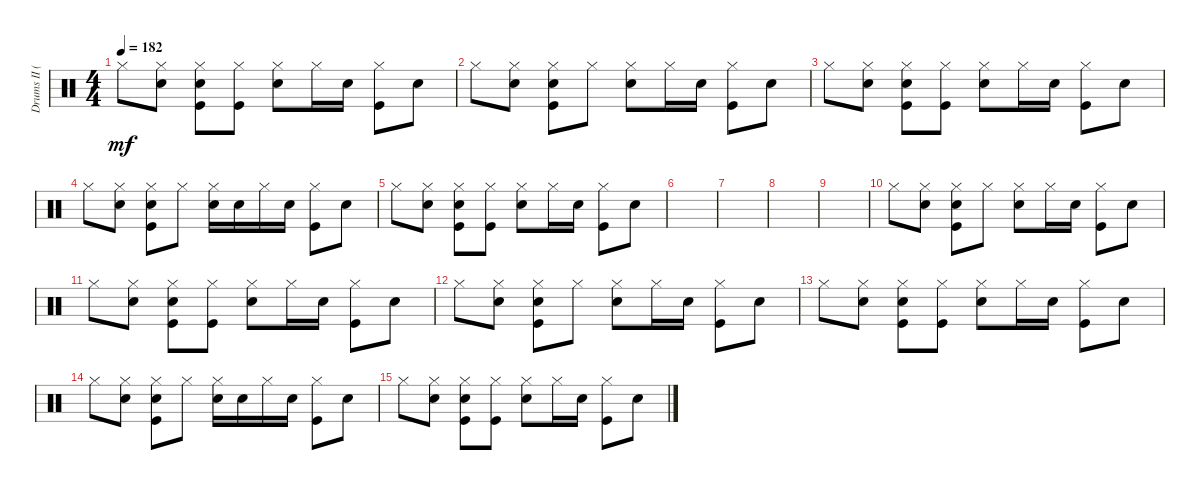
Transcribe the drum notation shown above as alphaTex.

\track ("Drums II (Tainaka Ritsu)" "Drums II (") {instrument percussion}
\staff {score}
\articulation defaults
\ts (4 4)
\tempo 182
\clef neutral
\ks c "Hi-Hat (closed)".8{dy mf}
("Hi-Hat (closed)" "Snare (hit) 2").8 ("Hi-Hat (closed)" "Snare (hit) 2" "Kick (hit)").8 ("Hi-Hat (closed)" "Kick (hit)").8 ("Hi-Hat (closed)" "Snare (hit) 2").8 "Hi-Hat (closed)".16 "Snare (hit) 2".16 ("Hi-Hat (closed)" "Kick (hit)").8 "Snare (hit) 2".8 |
"Hi-Hat (closed)".8 ("Hi-Hat (closed)" "Snare (hit) 2").8 ("Hi-Hat (closed)" "Snare (hit) 2" "Kick (hit)").8 "Hi-Hat (closed)".8 ("Hi-Hat (closed)" "Snare (hit) 2").8 "Hi-Hat (closed)".16 "Snare (hit) 2".16 ("Hi-Hat (closed)" "Kick (hit)").8 "Snare (hit) 2".8 |
"Hi-Hat (closed)".8 ("Hi-Hat (closed)" "Snare (hit) 2").8 ("Hi-Hat (closed)" "Snare (hit) 2" "Kick (hit)").8 ("Hi-Hat (closed)" "Kick (hit)").8 ("Hi-Hat (closed)" "Snare (hit) 2").8 "Hi-Hat (closed)".16 "Snare (hit) 2".16 ("Hi-Hat (closed)" "Kick (hit)").8 "Snare (hit) 2".8 |
"Hi-Hat (closed)".8 ("Hi-Hat (closed)" "Snare (hit) 2").8 ("Hi-Hat (closed)" "Snare (hit) 2" "Kick (hit)").8 "Hi-Hat (closed)".8 ("Hi-Hat (closed)" "Snare (hit) 2").16 "Snare (hit) 2".16 "Hi-Hat (closed)".16 "Snare (hit) 2".16 ("Hi-Hat (closed)" "Kick (hit)").8 "Snare (hit) 2".8 |
"Hi-Hat (closed)".8 ("Hi-Hat (closed)" "Snare (hit) 2").8 ("Hi-Hat (closed)" "Snare (hit) 2" "Kick (hit)").8 ("Hi-Hat (closed)" "Kick (hit)").8 ("Hi-Hat (closed)" "Snare (hit) 2").8 "Hi-Hat (closed)".16 "Snare (hit) 2".16 ("Hi-Hat (closed)" "Kick (hit)").8 "Snare (hit) 2".8 |
|
|
|
|
"Hi-Hat (closed)".8 ("Hi-Hat (closed)" "Snare (hit) 2").8 ("Hi-Hat (closed)" "Snare (hit) 2" "Kick (hit)").8 "Hi-Hat (closed)".8 ("Hi-Hat (closed)" "Snare (hit) 2").8 "Hi-Hat (closed)".16 "Snare (hit) 2".16 ("Hi-Hat (closed)" "Kick (hit)").8 "Snare (hit) 2".8 |
"Hi-Hat (closed)".8 ("Hi-Hat (closed)" "Snare (hit) 2").8 ("Hi-Hat (closed)" "Snare (hit) 2" "Kick (hit)").8 ("Hi-Hat (closed)" "Kick (hit)").8 ("Hi-Hat (closed)" "Snare (hit) 2").8 "Hi-Hat (closed)".16 "Snare (hit) 2".16 ("Hi-Hat (closed)" "Kick (hit)").8 "Snare (hit) 2".8 |
"Hi-Hat (closed)".8 ("Hi-Hat (closed)" "Snare (hit) 2").8 ("Hi-Hat (closed)" "Snare (hit) 2" "Kick (hit)").8 "Hi-Hat (closed)".8 ("Hi-Hat (closed)" "Snare (hit) 2").8 "Hi-Hat (closed)".16 "Snare (hit) 2".16 ("Hi-Hat (closed)" "Kick (hit)").8 "Snare (hit) 2".8 |
"Hi-Hat (closed)".8 ("Hi-Hat (closed)" "Snare (hit) 2").8 ("Hi-Hat (closed)" "Snare (hit) 2" "Kick (hit)").8 ("Hi-Hat (closed)" "Kick (hit)").8 ("Hi-Hat (closed)" "Snare (hit) 2").8 "Hi-Hat (closed)".16 "Snare (hit) 2".16 ("Hi-Hat (closed)" "Kick (hit)").8 "Snare (hit) 2".8 |
"Hi-Hat (closed)".8 ("Hi-Hat (closed)" "Snare (hit) 2").8 ("Hi-Hat (closed)" "Snare (hit) 2" "Kick (hit)").8 "Hi-Hat (closed)".8 ("Hi-Hat (closed)" "Snare (hit) 2").16 "Snare (hit) 2".16 "Hi-Hat (closed)".16 "Snare (hit) 2".16 ("Hi-Hat (closed)" "Kick (hit)").8 "Snare (hit) 2".8 |
"Hi-Hat (closed)".8 ("Hi-Hat (closed)" "Snare (hit) 2").8 ("Hi-Hat (closed)" "Snare (hit) 2" "Kick (hit)").8 ("Hi-Hat (closed)" "Kick (hit)").8 ("Hi-Hat (closed)" "Snare (hit) 2").8 "Hi-Hat (closed)".16 "Snare (hit) 2".16 ("Hi-Hat (closed)" "Kick (hit)").8 "Snare (hit) 2".8
